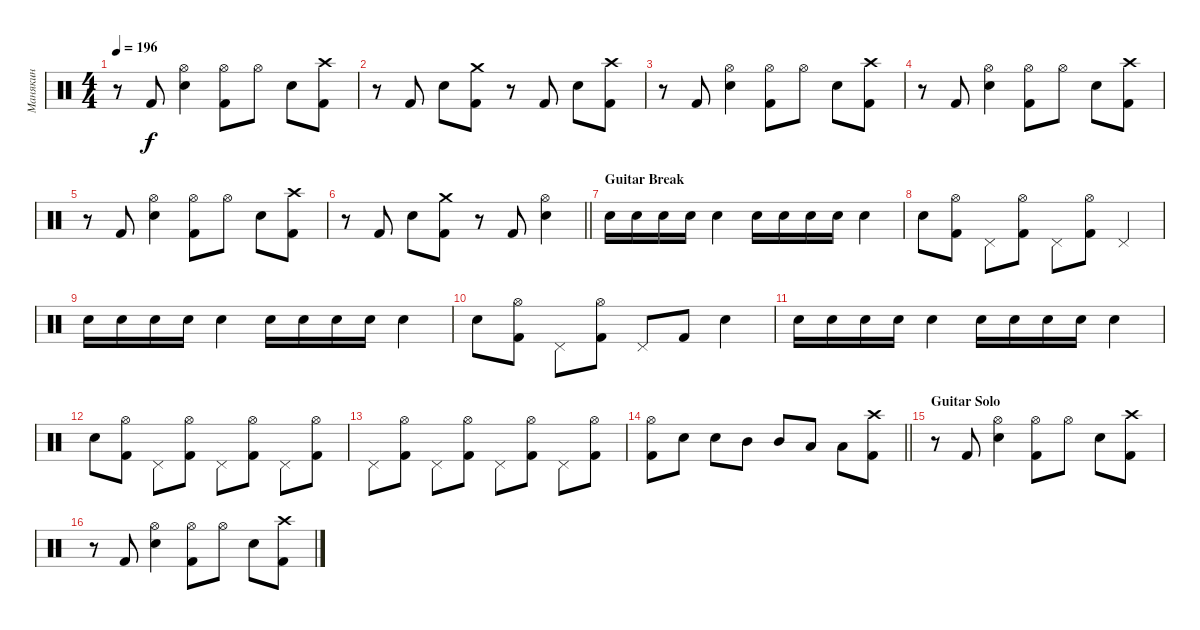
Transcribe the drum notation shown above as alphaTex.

\track ("Манякин" "Манякин") {instrument percussion}
\staff {score}
\articulation defaults
\ts (4 4)
\tempo 196
\clef neutral
\ks c
r.8{dy f} "Kick (hit) 2".8 ("Hi-Hat (open)" "Electric Snare (hit)").4 ("Hi-Hat (open)" "Kick (hit) 2").8 "Hi-Hat (open)".8 "Electric Snare (hit)".8 ("Crash high (hit)" "Kick (hit) 2").8 |
r.8 "Kick (hit) 2".8 "Electric Snare (hit)".8 ("Crash medium (hit)" "Kick (hit) 2").8 r.8 "Kick (hit) 2".8 "Electric Snare (hit)".8 ("Crash high (hit)" "Kick (hit) 2").8 |
r.8 "Kick (hit) 2".8 ("Hi-Hat (open)" "Electric Snare (hit)").4 ("Hi-Hat (open)" "Kick (hit) 2").8 "Hi-Hat (open)".8 "Electric Snare (hit)".8 ("Crash high (hit)" "Kick (hit) 2").8 |
r.8 "Kick (hit) 2".8 ("Hi-Hat (open)" "Electric Snare (hit)").4 ("Hi-Hat (open)" "Kick (hit) 2").8 "Hi-Hat (open)".8 "Electric Snare (hit)".8 ("Crash high (hit)" "Kick (hit) 2").8 |
r.8 "Kick (hit) 2".8 ("Hi-Hat (open)" "Electric Snare (hit)").4 ("Hi-Hat (open)" "Kick (hit) 2").8 "Hi-Hat (open)".8 "Electric Snare (hit)".8 ("Crash high (hit)" "Kick (hit) 2").8 |
\barLineRight lightlight
r.8 "Kick (hit) 2".8 "Electric Snare (hit)".8 ("Crash medium (hit)" "Kick (hit) 2").8 r.8 "Kick (hit) 2".8 ("Hi-Hat (open)" "Electric Snare (hit)").4 |
\section ("" "Guitar Break")
"Electric Snare (hit)".16 "Electric Snare (hit)".16 "Electric Snare (hit)".16 "Electric Snare (hit)".16 "Electric Snare (hit)".4 "Electric Snare (hit)".16 "Electric Snare (hit)".16 "Electric Snare (hit)".16 "Electric Snare (hit)".16 "Electric Snare (hit)".4 |
"Electric Snare (hit)".8 ("Hi-Hat (open)" "Kick (hit) 2").8 "Pedal Hi-Hat (hit)".8 ("Hi-Hat (open)" "Kick (hit) 2").8 "Pedal Hi-Hat (hit)".8 ("Hi-Hat (open)" "Kick (hit) 2").8 "Pedal Hi-Hat (hit)".4 |
"Electric Snare (hit)".16 "Electric Snare (hit)".16 "Electric Snare (hit)".16 "Electric Snare (hit)".16 "Electric Snare (hit)".4 "Electric Snare (hit)".16 "Electric Snare (hit)".16 "Electric Snare (hit)".16 "Electric Snare (hit)".16 "Electric Snare (hit)".4 |
"Electric Snare (hit)".8 ("Hi-Hat (open)" "Kick (hit) 2").8 "Pedal Hi-Hat (hit)".8 ("Hi-Hat (open)" "Kick (hit) 2").8 "Pedal Hi-Hat (hit)".8 "Kick (hit) 2".8 "Electric Snare (hit)".4 |
"Electric Snare (hit)".16 "Electric Snare (hit)".16 "Electric Snare (hit)".16 "Electric Snare (hit)".16 "Electric Snare (hit)".4 "Electric Snare (hit)".16 "Electric Snare (hit)".16 "Electric Snare (hit)".16 "Electric Snare (hit)".16 "Electric Snare (hit)".4 |
"Electric Snare (hit)".8 ("Hi-Hat (open)" "Kick (hit) 2").8 "Pedal Hi-Hat (hit)".8 ("Hi-Hat (open)" "Kick (hit) 2").8 "Pedal Hi-Hat (hit)".8 ("Hi-Hat (open)" "Kick (hit) 2").8 "Pedal Hi-Hat (hit)".8 ("Hi-Hat (open)" "Kick (hit) 2").8 |
"Pedal Hi-Hat (hit)".8 ("Hi-Hat (open)" "Kick (hit) 2").8 "Pedal Hi-Hat (hit)".8 ("Hi-Hat (open)" "Kick (hit) 2").8 "Pedal Hi-Hat (hit)".8 ("Hi-Hat (open)" "Kick (hit) 2").8 "Pedal Hi-Hat (hit)".8 ("Hi-Hat (open)" "Kick (hit) 2").8 |
\barLineRight lightlight
("Hi-Hat (open)" "Kick (hit) 2").8 "Electric Snare (hit)".8 "Electric Snare (hit)".8 "Mid Tom (hit)".8 "Mid Tom (hit)".8 "Low Tom (hit)".8 "Low Tom (hit)".8 ("Crash high (hit)" "Kick (hit) 2").8 |
\section ("" "Guitar Solo")
r.8 "Kick (hit) 2".8 ("Hi-Hat (open)" "Electric Snare (hit)").4 ("Hi-Hat (open)" "Kick (hit) 2").8 "Hi-Hat (open)".8 "Electric Snare (hit)".8 ("Crash high (hit)" "Kick (hit) 2").8 |
r.8 "Kick (hit) 2".8 ("Hi-Hat (open)" "Electric Snare (hit)").4 ("Hi-Hat (open)" "Kick (hit) 2").8 "Hi-Hat (open)".8 "Electric Snare (hit)".8 ("Crash high (hit)" "Kick (hit) 2").8
